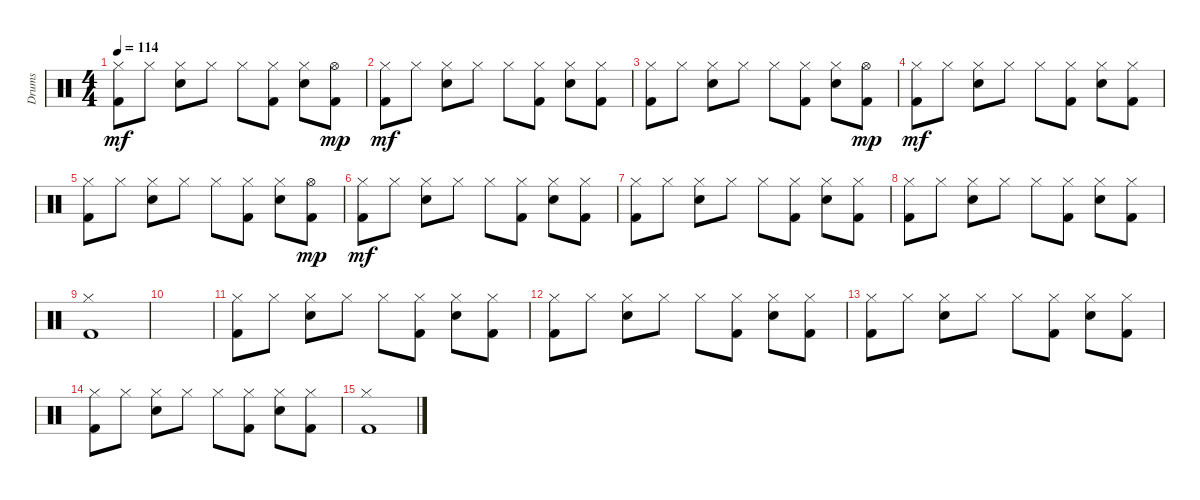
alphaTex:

\track ("Drums" "Drums") {instrument percussion}
\staff {score}
\articulation defaults
\ts (4 4)
\tempo 114
\clef neutral
\ks c
("Hi-Hat (closed)" "Kick (hit) 2").8{dy mf} "Hi-Hat (closed)".8 ("Hi-Hat (closed)" "Electric Snare (hit)").8 "Hi-Hat (closed)".8 "Hi-Hat (closed)".8 ("Hi-Hat (closed)" "Kick (hit) 2").8 ("Hi-Hat (closed)" "Electric Snare (hit)").8 ("Hi-Hat (open)" "Kick (hit) 2").8{dy mp} |
("Hi-Hat (closed)" "Kick (hit) 2").8{dy mf} "Hi-Hat (closed)".8 ("Hi-Hat (closed)" "Electric Snare (hit)").8 "Hi-Hat (closed)".8 "Hi-Hat (closed)".8 ("Hi-Hat (closed)" "Kick (hit) 2").8 ("Hi-Hat (closed)" "Electric Snare (hit)").8 ("Hi-Hat (closed)" "Kick (hit) 2").8 |
("Hi-Hat (closed)" "Kick (hit) 2").8 "Hi-Hat (closed)".8 ("Hi-Hat (closed)" "Electric Snare (hit)").8 "Hi-Hat (closed)".8 "Hi-Hat (closed)".8 ("Hi-Hat (closed)" "Kick (hit) 2").8 ("Hi-Hat (closed)" "Electric Snare (hit)").8 ("Hi-Hat (open)" "Kick (hit) 2").8{dy mp} |
("Hi-Hat (closed)" "Kick (hit) 2").8{dy mf} "Hi-Hat (closed)".8 ("Hi-Hat (closed)" "Electric Snare (hit)").8 "Hi-Hat (closed)".8 "Hi-Hat (closed)".8 ("Hi-Hat (closed)" "Kick (hit) 2").8 ("Hi-Hat (closed)" "Electric Snare (hit)").8 ("Hi-Hat (closed)" "Kick (hit) 2").8 |
("Hi-Hat (closed)" "Kick (hit) 2").8 "Hi-Hat (closed)".8 ("Hi-Hat (closed)" "Electric Snare (hit)").8 "Hi-Hat (closed)".8 "Hi-Hat (closed)".8 ("Hi-Hat (closed)" "Kick (hit) 2").8 ("Hi-Hat (closed)" "Electric Snare (hit)").8 ("Hi-Hat (open)" "Kick (hit) 2").8{dy mp} |
("Hi-Hat (closed)" "Kick (hit) 2").8{dy mf} "Hi-Hat (closed)".8 ("Hi-Hat (closed)" "Electric Snare (hit)").8 "Hi-Hat (closed)".8 "Hi-Hat (closed)".8 ("Hi-Hat (closed)" "Kick (hit) 2").8 ("Hi-Hat (closed)" "Electric Snare (hit)").8 ("Hi-Hat (closed)" "Kick (hit) 2").8 |
("Hi-Hat (closed)" "Kick (hit) 2").8 "Hi-Hat (closed)".8 ("Hi-Hat (closed)" "Electric Snare (hit)").8 "Hi-Hat (closed)".8 "Hi-Hat (closed)".8 ("Hi-Hat (closed)" "Kick (hit) 2").8 ("Hi-Hat (closed)" "Electric Snare (hit)").8 ("Hi-Hat (closed)" "Kick (hit) 2").8 |
("Hi-Hat (closed)" "Kick (hit) 2").8 "Hi-Hat (closed)".8 ("Hi-Hat (closed)" "Electric Snare (hit)").8 "Hi-Hat (closed)".8 "Hi-Hat (closed)".8 ("Hi-Hat (closed)" "Kick (hit) 2").8 ("Hi-Hat (closed)" "Electric Snare (hit)").8 ("Hi-Hat (closed)" "Kick (hit) 2").8 |
("Hi-Hat (closed)" "Kick (hit) 2").1 |
|
("Hi-Hat (closed)" "Kick (hit) 2").8 "Hi-Hat (closed)".8 ("Hi-Hat (closed)" "Electric Snare (hit)").8 "Hi-Hat (closed)".8 "Hi-Hat (closed)".8 ("Hi-Hat (closed)" "Kick (hit) 2").8 ("Hi-Hat (closed)" "Electric Snare (hit)").8 ("Hi-Hat (closed)" "Kick (hit) 2").8 |
("Hi-Hat (closed)" "Kick (hit) 2").8 "Hi-Hat (closed)".8 ("Hi-Hat (closed)" "Electric Snare (hit)").8 "Hi-Hat (closed)".8 "Hi-Hat (closed)".8 ("Hi-Hat (closed)" "Kick (hit) 2").8 ("Hi-Hat (closed)" "Electric Snare (hit)").8 ("Hi-Hat (closed)" "Kick (hit) 2").8 |
("Hi-Hat (closed)" "Kick (hit) 2").8 "Hi-Hat (closed)".8 ("Hi-Hat (closed)" "Electric Snare (hit)").8 "Hi-Hat (closed)".8 "Hi-Hat (closed)".8 ("Hi-Hat (closed)" "Kick (hit) 2").8 ("Hi-Hat (closed)" "Electric Snare (hit)").8 ("Hi-Hat (closed)" "Kick (hit) 2").8 |
("Hi-Hat (closed)" "Kick (hit) 2").8 "Hi-Hat (closed)".8 ("Hi-Hat (closed)" "Electric Snare (hit)").8 "Hi-Hat (closed)".8 "Hi-Hat (closed)".8 ("Hi-Hat (closed)" "Kick (hit) 2").8 ("Hi-Hat (closed)" "Electric Snare (hit)").8 ("Hi-Hat (closed)" "Kick (hit) 2").8 |
("Hi-Hat (closed)" "Kick (hit) 2").1
